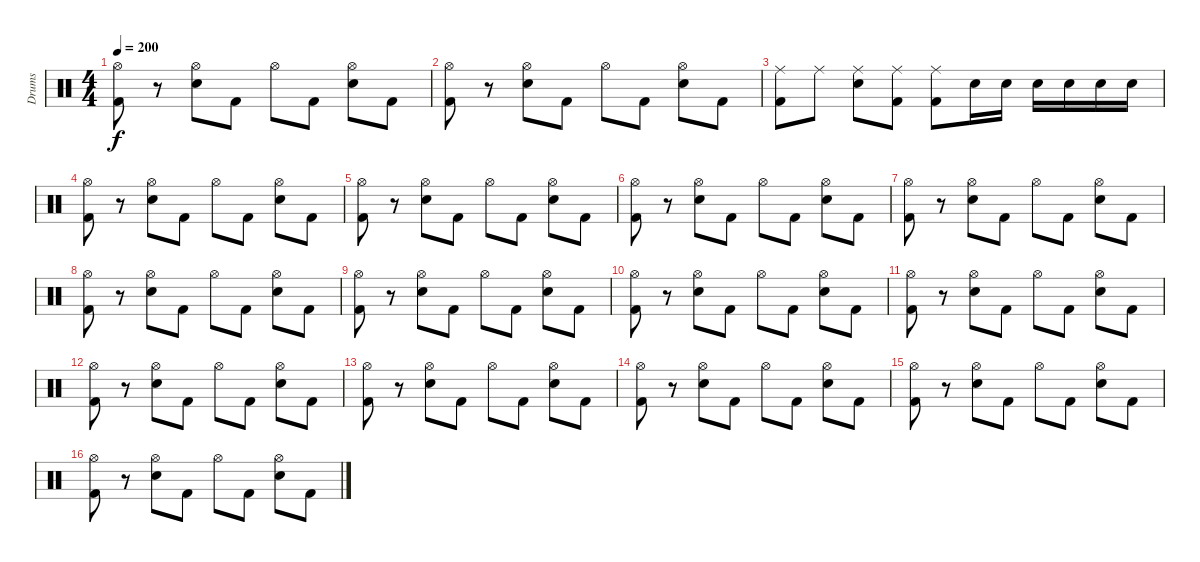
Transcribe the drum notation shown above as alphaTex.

\track ("Drums" "Drums") {instrument percussion}
\staff {score}
\articulation defaults
\ts (4 4)
\tempo 200
\clef neutral
\ks c
("Kick (hit) 2" "Hi-Hat (open)").8{dy f} r.8 ("Electric Snare (hit)" "Hi-Hat (open)").8 "Kick (hit) 2".8 "Hi-Hat (open)".8 "Kick (hit) 2".8 ("Electric Snare (hit)" "Hi-Hat (open)").8 "Kick (hit) 2".8 |
("Kick (hit) 2" "Hi-Hat (open)").8 r.8 ("Electric Snare (hit)" "Hi-Hat (open)").8 "Kick (hit) 2".8 "Hi-Hat (open)".8 "Kick (hit) 2".8 ("Electric Snare (hit)" "Hi-Hat (open)").8 "Kick (hit) 2".8 |
("Kick (hit) 2" "Ride (middle)").8 "Ride (middle)".8 ("Electric Snare (hit)" "Ride (middle)").8 ("Kick (hit) 2" "Ride (middle)").8 ("Kick (hit) 2" "Ride (middle)").8 "Electric Snare (hit)".16 "Electric Snare (hit)".16 "Electric Snare (hit)".16 "Electric Snare (hit)".16 "Electric Snare (hit)".16 "Electric Snare (hit)".16 |
("Kick (hit) 2" "Hi-Hat (open)").8 r.8 ("Electric Snare (hit)" "Hi-Hat (open)").8 "Kick (hit) 2".8 "Hi-Hat (open)".8 "Kick (hit) 2".8 ("Electric Snare (hit)" "Hi-Hat (open)").8 "Kick (hit) 2".8 |
("Kick (hit) 2" "Hi-Hat (open)").8 r.8 ("Electric Snare (hit)" "Hi-Hat (open)").8 "Kick (hit) 2".8 "Hi-Hat (open)".8 "Kick (hit) 2".8 ("Electric Snare (hit)" "Hi-Hat (open)").8 "Kick (hit) 2".8 |
("Kick (hit) 2" "Hi-Hat (open)").8 r.8 ("Electric Snare (hit)" "Hi-Hat (open)").8 "Kick (hit) 2".8 "Hi-Hat (open)".8 "Kick (hit) 2".8 ("Electric Snare (hit)" "Hi-Hat (open)").8 "Kick (hit) 2".8 |
("Kick (hit) 2" "Hi-Hat (open)").8 r.8 ("Electric Snare (hit)" "Hi-Hat (open)").8 "Kick (hit) 2".8 "Hi-Hat (open)".8 "Kick (hit) 2".8 ("Electric Snare (hit)" "Hi-Hat (open)").8 "Kick (hit) 2".8 |
("Kick (hit) 2" "Hi-Hat (open)").8 r.8 ("Electric Snare (hit)" "Hi-Hat (open)").8 "Kick (hit) 2".8 "Hi-Hat (open)".8 "Kick (hit) 2".8 ("Electric Snare (hit)" "Hi-Hat (open)").8 "Kick (hit) 2".8 |
("Kick (hit) 2" "Hi-Hat (open)").8 r.8 ("Electric Snare (hit)" "Hi-Hat (open)").8 "Kick (hit) 2".8 "Hi-Hat (open)".8 "Kick (hit) 2".8 ("Electric Snare (hit)" "Hi-Hat (open)").8 "Kick (hit) 2".8 |
("Kick (hit) 2" "Hi-Hat (open)").8 r.8 ("Electric Snare (hit)" "Hi-Hat (open)").8 "Kick (hit) 2".8 "Hi-Hat (open)".8 "Kick (hit) 2".8 ("Electric Snare (hit)" "Hi-Hat (open)").8 "Kick (hit) 2".8 |
("Kick (hit) 2" "Hi-Hat (open)").8 r.8 ("Electric Snare (hit)" "Hi-Hat (open)").8 "Kick (hit) 2".8 "Hi-Hat (open)".8 "Kick (hit) 2".8 ("Electric Snare (hit)" "Hi-Hat (open)").8 "Kick (hit) 2".8 |
("Kick (hit) 2" "Hi-Hat (open)").8 r.8 ("Electric Snare (hit)" "Hi-Hat (open)").8 "Kick (hit) 2".8 "Hi-Hat (open)".8 "Kick (hit) 2".8 ("Electric Snare (hit)" "Hi-Hat (open)").8 "Kick (hit) 2".8 |
("Kick (hit) 2" "Hi-Hat (open)").8 r.8 ("Electric Snare (hit)" "Hi-Hat (open)").8 "Kick (hit) 2".8 "Hi-Hat (open)".8 "Kick (hit) 2".8 ("Electric Snare (hit)" "Hi-Hat (open)").8 "Kick (hit) 2".8 |
("Kick (hit) 2" "Hi-Hat (open)").8 r.8 ("Electric Snare (hit)" "Hi-Hat (open)").8 "Kick (hit) 2".8 "Hi-Hat (open)".8 "Kick (hit) 2".8 ("Electric Snare (hit)" "Hi-Hat (open)").8 "Kick (hit) 2".8 |
("Kick (hit) 2" "Hi-Hat (open)").8 r.8 ("Electric Snare (hit)" "Hi-Hat (open)").8 "Kick (hit) 2".8 "Hi-Hat (open)".8 "Kick (hit) 2".8 ("Electric Snare (hit)" "Hi-Hat (open)").8 "Kick (hit) 2".8 |
("Kick (hit) 2" "Hi-Hat (open)").8 r.8 ("Electric Snare (hit)" "Hi-Hat (open)").8 "Kick (hit) 2".8 "Hi-Hat (open)".8 "Kick (hit) 2".8 ("Electric Snare (hit)" "Hi-Hat (open)").8 "Kick (hit) 2".8
